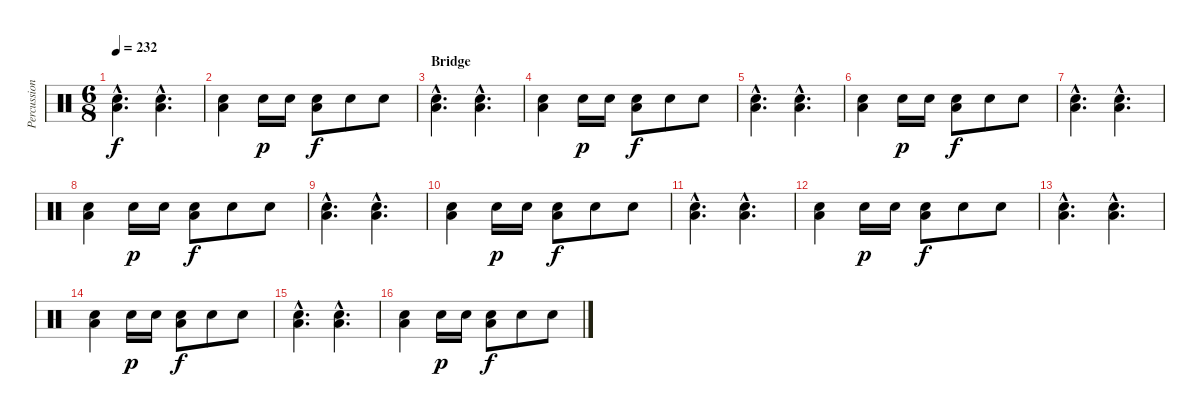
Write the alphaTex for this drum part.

\track ("Percussion" "Percussion") {instrument percussion}
\staff {score}
\articulation defaults
\ts (6 8)
\tempo 232
\clef neutral
\ks c
("Electric Snare (hit)"{hac} "Low Floor Tom (hit)"{hac}).4{d dy f} ("Electric Snare (hit)"{hac} "Low Floor Tom (hit)"{hac}).4{d} |
("Electric Snare (hit)" "Low Floor Tom (hit)").4 "Snare (hit) 2".16{dy p} "Snare (hit) 2".16 ("Electric Snare (hit)" "Low Floor Tom (hit)").8{dy f} "Electric Snare (hit)".8 "Electric Snare (hit)".8 |
\section ("" "Bridge")
("Electric Snare (hit)"{hac} "Low Floor Tom (hit)"{hac}).4{d volume 10} ("Electric Snare (hit)"{hac} "Low Floor Tom (hit)"{hac}).4{d} |
("Electric Snare (hit)" "Low Floor Tom (hit)").4 "Snare (hit) 2".16{dy p} "Snare (hit) 2".16 ("Electric Snare (hit)" "Low Floor Tom (hit)").8{dy f} "Electric Snare (hit)".8 "Electric Snare (hit)".8 |
("Electric Snare (hit)"{hac} "Low Floor Tom (hit)"{hac}).4{d} ("Electric Snare (hit)"{hac} "Low Floor Tom (hit)"{hac}).4{d} |
("Electric Snare (hit)" "Low Floor Tom (hit)").4 "Snare (hit) 2".16{dy p} "Snare (hit) 2".16 ("Electric Snare (hit)" "Low Floor Tom (hit)").8{dy f} "Electric Snare (hit)".8 "Electric Snare (hit)".8 |
("Electric Snare (hit)"{hac} "Low Floor Tom (hit)"{hac}).4{d} ("Electric Snare (hit)"{hac} "Low Floor Tom (hit)"{hac}).4{d} |
("Electric Snare (hit)" "Low Floor Tom (hit)").4 "Snare (hit) 2".16{dy p} "Snare (hit) 2".16 ("Electric Snare (hit)" "Low Floor Tom (hit)").8{dy f} "Electric Snare (hit)".8 "Electric Snare (hit)".8 |
("Electric Snare (hit)"{hac} "Low Floor Tom (hit)"{hac}).4{d} ("Electric Snare (hit)"{hac} "Low Floor Tom (hit)"{hac}).4{d} |
("Electric Snare (hit)" "Low Floor Tom (hit)").4 "Snare (hit) 2".16{dy p} "Snare (hit) 2".16 ("Electric Snare (hit)" "Low Floor Tom (hit)").8{dy f} "Electric Snare (hit)".8 "Electric Snare (hit)".8 |
("Electric Snare (hit)"{hac} "Low Floor Tom (hit)"{hac}).4{d} ("Electric Snare (hit)"{hac} "Low Floor Tom (hit)"{hac}).4{d} |
("Electric Snare (hit)" "Low Floor Tom (hit)").4 "Snare (hit) 2".16{dy p} "Snare (hit) 2".16 ("Electric Snare (hit)" "Low Floor Tom (hit)").8{dy f} "Electric Snare (hit)".8 "Electric Snare (hit)".8 |
("Electric Snare (hit)"{hac} "Low Floor Tom (hit)"{hac}).4{d} ("Electric Snare (hit)"{hac} "Low Floor Tom (hit)"{hac}).4{d} |
("Electric Snare (hit)" "Low Floor Tom (hit)").4 "Snare (hit) 2".16{dy p} "Snare (hit) 2".16 ("Electric Snare (hit)" "Low Floor Tom (hit)").8{dy f} "Electric Snare (hit)".8 "Electric Snare (hit)".8 |
("Electric Snare (hit)"{hac} "Low Floor Tom (hit)"{hac}).4{d} ("Electric Snare (hit)"{hac} "Low Floor Tom (hit)"{hac}).4{d} |
("Electric Snare (hit)" "Low Floor Tom (hit)").4 "Snare (hit) 2".16{dy p} "Snare (hit) 2".16 ("Electric Snare (hit)" "Low Floor Tom (hit)").8{dy f} "Electric Snare (hit)".8 "Electric Snare (hit)".8
